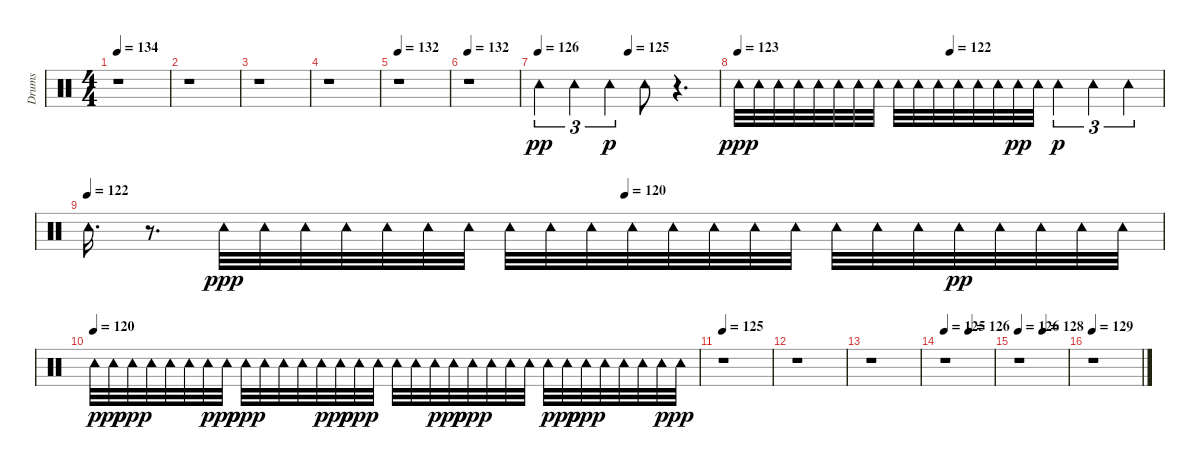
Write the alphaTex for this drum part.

\track ("Drums" "Drums") {instrument percussion}
\staff {score}
\articulation defaults
\ts (4 4)
\tempo 134
\clef neutral
\ks c
r.1{dy pp} |
r.1 |
r.1 |
r.1 |
\tempo 132
r.1 |
\tempo 132
r.1 |
\tempo 126
\tempo (125 0.5)
"Tambourine (hit)".4{tu (3 2)} "Tambourine (hit)".4{tu (3 2)} "Tambourine (hit)".4{tu (3 2) dy p} "Tambourine (hit)".8 r.4{d} |
\tempo 123
\tempo (122 0.5)
"Tambourine (hit)".32{dy ppp} "Tambourine (hit)".32 "Tambourine (hit)".32 "Tambourine (hit)".32 "Tambourine (hit)".32 "Tambourine (hit)".32 "Tambourine (hit)".32 "Tambourine (hit)".32 "Tambourine (hit)".32 "Tambourine (hit)".32 "Tambourine (hit)".32 "Tambourine (hit)".32 "Tambourine (hit)".32 "Tambourine (hit)".32 "Tambourine (hit)".32{dy pp} "Tambourine (hit)".32 "Tambourine (hit)".4{tu (3 2) dy p} "Tambourine (hit)".4{tu (3 2)} "Tambourine (hit)".4{tu (3 2)} |
\tempo 122
\tempo (120 0.5)
"Tambourine (hit)".16{d} r.8{d} "Tambourine (hit)".32{dy ppp} "Tambourine (hit)".32 "Tambourine (hit)".32 "Tambourine (hit)".32 "Tambourine (hit)".32 "Tambourine (hit)".32 "Tambourine (hit)".32 "Tambourine (hit)".32 "Tambourine (hit)".32 "Tambourine (hit)".32 "Tambourine (hit)".32 "Tambourine (hit)".32 "Tambourine (hit)".32 "Tambourine (hit)".32 "Tambourine (hit)".32 "Tambourine (hit)".32 "Tambourine (hit)".32 "Tambourine (hit)".32 "Tambourine (hit)".32{dy pp} "Tambourine (hit)".32 "Tambourine (hit)".32 "Tambourine (hit)".32 "Tambourine (hit)".32 |
\tempo (120)
"Tambourine (hit)".32{dy p} "Tambourine (hit)".32{dy pp} "Tambourine (hit)".32{dy ppp} "Tambourine (hit)".32 "Tambourine (hit)".32 "Tambourine (hit)".32 "Tambourine (hit)".32{dy p} "Tambourine (hit)".32{dy pp} "Tambourine (hit)".32{dy ppp} "Tambourine (hit)".32 "Tambourine (hit)".32 "Tambourine (hit)".32 "Tambourine (hit)".32{dy p} "Tambourine (hit)".32{dy pp} "Tambourine (hit)".32{dy ppp} "Tambourine (hit)".32 "Tambourine (hit)".32 "Tambourine (hit)".32 "Tambourine (hit)".32{dy p} "Tambourine (hit)".32{dy pp} "Tambourine (hit)".32{dy ppp} "Tambourine (hit)".32 "Tambourine (hit)".32 "Tambourine (hit)".32 "Tambourine (hit)".32{dy p} "Tambourine (hit)".32{dy pp} "Tambourine (hit)".32{dy ppp} "Tambourine (hit)".32 "Tambourine (hit)".32 "Tambourine (hit)".32 "Tambourine (hit)".32{dy p} "Tambourine (hit)".32{dy pp} |
\tempo 125
r.1 |
r.1 |
r.1 |
\tempo 125
\tempo (126 0.5)
r.1 |
\tempo 126
\tempo (128 0.5)
r.1 |
\tempo 129
r.1
